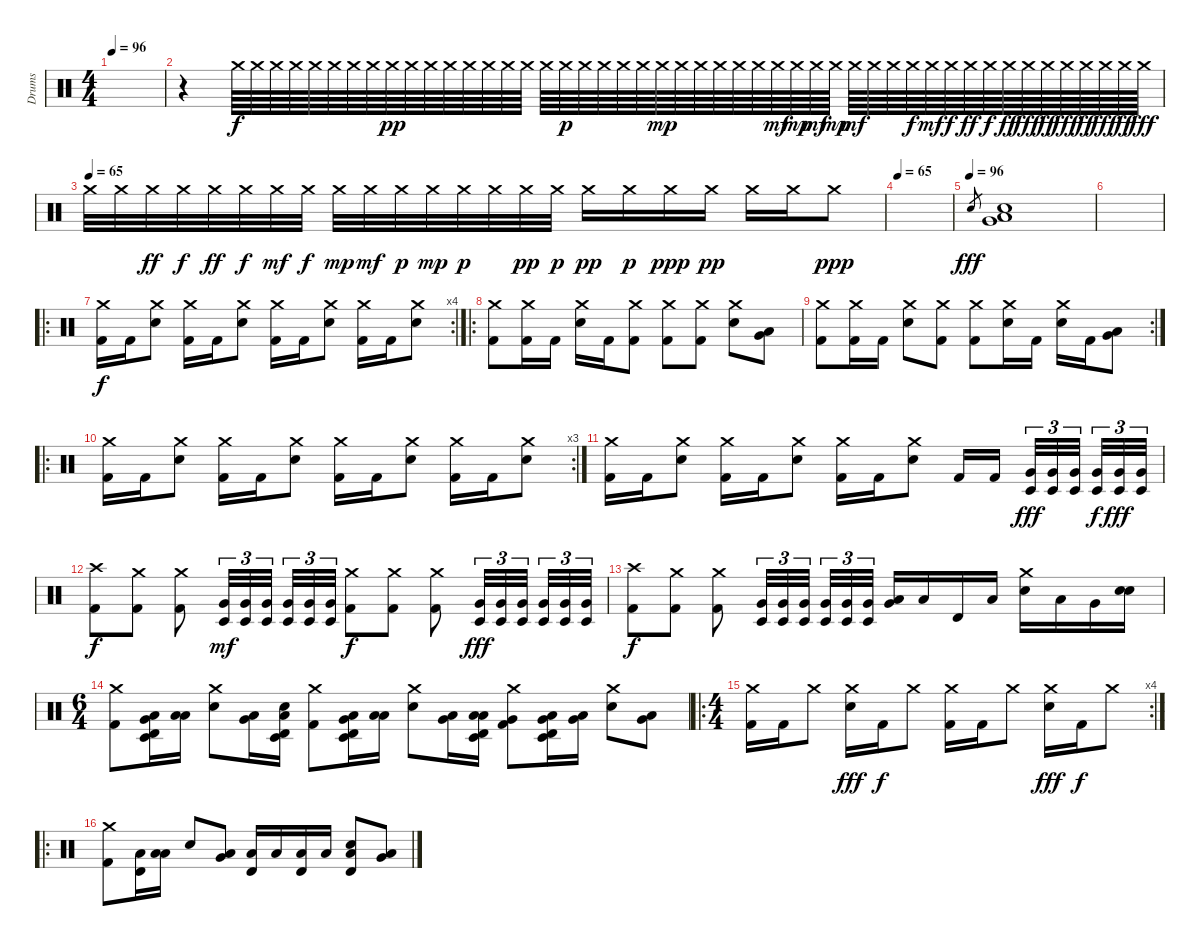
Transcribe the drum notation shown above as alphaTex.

\track ("Drums" "Drums") {instrument percussion}
\staff {score}
\articulation defaults
\ts (4 4)
\tempo 96
\tempo 55
\tempo 96
\clef neutral
\ks c
|
r.4 "Crash medium (hit)".64 "Crash medium (hit)".64 "Crash medium (hit)".64 "Crash medium (hit)".64 "Crash medium (hit)".64 "Crash medium (hit)".64 "Crash medium (hit)".64 "Crash medium (hit)".64 "Crash medium (hit)".64{dy pp} "Crash medium (hit)".64 "Crash medium (hit)".64 "Crash medium (hit)".64 "Crash medium (hit)".64 "Crash medium (hit)".64 "Crash medium (hit)".64 "Crash medium (hit)".64 "Crash medium (hit)".64 "Crash medium (hit)".64{dy p} "Crash medium (hit)".64 "Crash medium (hit)".64 "Crash medium (hit)".64 "Crash medium (hit)".64 "Crash medium (hit)".64{dy mp} "Crash medium (hit)".64 "Crash medium (hit)".64 "Crash medium (hit)".64 "Crash medium (hit)".64 "Crash medium (hit)".64 "Crash medium (hit)".64{dy mf} "Crash medium (hit)".64{dy mp} "Crash medium (hit)".64{dy mf} "Crash medium (hit)".64{dy mp} "Crash medium (hit)".64{dy mf} "Crash medium (hit)".64 "Crash medium (hit)".64 "Crash medium (hit)".64{dy f} "Crash medium (hit)".64{dy mf} "Crash medium (hit)".64{dy f} "Crash medium (hit)".64{dy ff} "Crash medium (hit)".64{dy f} "Crash medium (hit)".64{dy ff} "Crash medium (hit)".64{dy fff} "Crash medium (hit)".64{dy ff} "Crash medium (hit)".64{dy fff} "Crash medium (hit)".64{dy ff} "Crash medium (hit)".64{dy fff} "Crash medium (hit)".64{dy ff} "Crash medium (hit)".64{dy fff} |
\tempo (65)
"Crash medium (hit)".32 "Crash medium (hit)".32 "Crash medium (hit)".32{dy ff} "Crash medium (hit)".32{dy f} "Crash medium (hit)".32{dy ff} "Crash medium (hit)".32{dy f} "Crash medium (hit)".32{dy mf} "Crash medium (hit)".32{dy f} "Crash medium (hit)".32{dy mp} "Crash medium (hit)".32{dy mf} "Crash medium (hit)".32{dy p} "Crash medium (hit)".32{dy mp} "Crash medium (hit)".32{dy p} "Crash medium (hit)".32 "Crash medium (hit)".32{dy pp} "Crash medium (hit)".32{dy p} "Crash medium (hit)".16{dy pp} "Crash medium (hit)".16{dy p} "Crash medium (hit)".16{dy ppp} "Crash medium (hit)".16{dy pp} "Crash medium (hit)".16 "Crash medium (hit)".16 "Crash medium (hit)".8{dy ppp} |
\tempo 65
|
\tempo (96)
"Electric Snare (hit)".8{gr dy fff} ("Very Low Tom (hit)" "Electric Snare (hit)" "Low Floor Tom (hit)").1 |
|
\ro
\rc 4
("Crash medium (hit)" "Kick (hit) 2").16{dy f} "Kick (hit) 2".16 ("Crash medium (hit)" "Electric Snare (hit)").8 ("Crash medium (hit)" "Kick (hit) 2").16 "Kick (hit) 2".16 ("Crash medium (hit)" "Electric Snare (hit)").8 ("Crash medium (hit)" "Kick (hit) 2").16 "Kick (hit) 2".16 ("Crash medium (hit)" "Electric Snare (hit)").8 ("Crash medium (hit)" "Kick (hit) 2").16 "Kick (hit) 2".16 ("Crash medium (hit)" "Electric Snare (hit)").8 |
\ro
("Kick (hit) 2" "Crash medium (hit)").8 ("Crash medium (hit)" "Kick (hit) 2").16 "Kick (hit) 2".16 ("Crash medium (hit)" "Electric Snare (hit)").16 "Kick (hit) 2".16 ("Crash medium (hit)" "Kick (hit) 2").8 ("Crash medium (hit)" "Kick (hit) 2").8 ("Crash medium (hit)" "Kick (hit) 2").8 ("Crash medium (hit)" "Electric Snare (hit)").8 ("Very Low Tom (hit)" "Low Tom (hit)").8 |
\rc 2
("Kick (hit) 2" "Crash medium (hit)").8 ("Crash medium (hit)" "Kick (hit) 2").16 "Kick (hit) 2".16 ("Crash medium (hit)" "Electric Snare (hit)").8 ("Crash medium (hit)" "Kick (hit) 2").8 ("Crash medium (hit)" "Kick (hit) 2").8 ("Crash medium (hit)" "Electric Snare (hit)").16 "Kick (hit) 2".16 ("Crash medium (hit)" "Electric Snare (hit)").16 "Kick (hit) 2".16 ("Very Low Tom (hit)" "Low Tom (hit)").8 |
\ro
\rc 3
("Crash medium (hit)" "Kick (hit) 2").16 "Kick (hit) 2".16 ("Crash medium (hit)" "Electric Snare (hit)").8 ("Crash medium (hit)" "Kick (hit) 2").16 "Kick (hit) 2".16 ("Crash medium (hit)" "Electric Snare (hit)").8 ("Crash medium (hit)" "Kick (hit) 2").16 "Kick (hit) 2".16 ("Crash medium (hit)" "Electric Snare (hit)").8 ("Crash medium (hit)" "Kick (hit) 2").16 "Kick (hit) 2".16 ("Crash medium (hit)" "Electric Snare (hit)").8 |
("Crash medium (hit)" "Kick (hit) 2").16 "Kick (hit) 2".16 ("Crash medium (hit)" "Electric Snare (hit)").8 ("Crash medium (hit)" "Kick (hit) 2").16 "Kick (hit) 2".16 ("Crash medium (hit)" "Electric Snare (hit)").8 ("Crash medium (hit)" "Kick (hit) 2").16 "Kick (hit) 2".16 ("Crash medium (hit)" "Electric Snare (hit)").8 "Kick (hit) 2".16 "Kick (hit) 2".16 ("Very Low Tom (hit)" "Timbale low (hit)").32{tu (3 2) dy fff} ("Very Low Tom (hit)" "Timbale low (hit)").32{tu (3 2)} ("Very Low Tom (hit)" "Timbale low (hit)").32{tu (3 2)} ("Very Low Tom (hit)" "Timbale low (hit)").32{tu (3 2) dy f} ("Very Low Tom (hit)" "Timbale low (hit)").32{tu (3 2) dy fff} ("Very Low Tom (hit)" "Timbale low (hit)").32{tu (3 2)} |
("Crash high (hit)" "Kick (hit) 2").8{dy f} ("Crash medium (hit)" "Kick (hit) 2").8 ("Crash medium (hit)" "Kick (hit) 2").8 ("Very Low Tom (hit)" "Timbale low (hit)").32{tu (3 2) dy mf} ("Very Low Tom (hit)" "Timbale low (hit)").32{tu (3 2)} ("Very Low Tom (hit)" "Timbale low (hit)").32{tu (3 2)} ("Very Low Tom (hit)" "Timbale low (hit)").32{tu (3 2)} ("Very Low Tom (hit)" "Timbale low (hit)").32{tu (3 2)} ("Very Low Tom (hit)" "Timbale low (hit)").32{tu (3 2)} ("Crash medium (hit)" "Kick (hit) 2").8{dy f} ("Crash medium (hit)" "Kick (hit) 2").8 ("Crash medium (hit)" "Kick (hit) 2").8 ("Timbale low (hit)" "Very Low Tom (hit)").32{tu (3 2) dy fff} ("Timbale low (hit)" "Very Low Tom (hit)").32{tu (3 2)} ("Timbale low (hit)" "Very Low Tom (hit)").32{tu (3 2)} ("Timbale low (hit)" "Very Low Tom (hit)").32{tu (3 2)} ("Timbale low (hit)" "Very Low Tom (hit)").32{tu (3 2)} ("Timbale low (hit)" "Very Low Tom (hit)").32{tu (3 2)} |
("Crash high (hit)" "Kick (hit) 2").8{dy f} ("Crash medium (hit)" "Kick (hit) 2").8 ("Crash medium (hit)" "Kick (hit) 2").8 ("Very Low Tom (hit)" "Timbale low (hit)").32{tu (3 2)} ("Very Low Tom (hit)" "Timbale low (hit)").32{tu (3 2)} ("Very Low Tom (hit)" "Timbale low (hit)").32{tu (3 2)} ("Very Low Tom (hit)" "Timbale low (hit)").32{tu (3 2)} ("Very Low Tom (hit)" "Timbale low (hit)").32{tu (3 2)} ("Very Low Tom (hit)" "Timbale low (hit)").32{tu (3 2)} ("Very Low Tom (hit)" "Low Tom (hit)").16 "Low Tom (hit)".16 "Timbale high (hit)".16 "Low Tom (hit)".16 ("Electric Snare (hit)" "Crash medium (hit)").16 "Low Tom (hit)".16 "Very Low Tom (hit)".16 ("Electric Snare (hit)" "Electric Snare (hit)").16 |
\ts (6 4)
("Kick (hit) 2" "Crash medium (hit)").8 ("Timbale low (hit)" "Timbale high (hit)" "Low Tom (hit)" "Very Low Tom (hit)").16 ("Low Tom (hit)" "Low Tom (hit)").16 ("Electric Snare (hit)" "Crash medium (hit)").8 ("Low Tom (hit)" "Very Low Tom (hit)").16 ("Timbale low (hit)" "Timbale high (hit)" "Low Tom (hit)" "Electric Snare (hit)").16 ("Crash medium (hit)" "Kick (hit) 2").8 ("Timbale low (hit)" "Timbale high (hit)" "Low Tom (hit)" "Very Low Tom (hit)").16 ("Low Tom (hit)" "Low Tom (hit)").16 ("Electric Snare (hit)" "Crash medium (hit)").8 ("Low Tom (hit)" "Very Low Tom (hit)").16 ("Timbale high (hit)" "Timbale low (hit)" "Low Tom (hit)" "Low Tom (hit)").16 ("Crash medium (hit)" "Very Low Tom (hit)" "Kick (hit) 2").8 ("Timbale low (hit)" "Timbale high (hit)" "Low Tom (hit)" "Very Low Tom (hit)").16 ("Low Tom (hit)" "Very Low Tom (hit)").16 ("Electric Snare (hit)" "Crash medium (hit)").8 ("Very Low Tom (hit)" "Low Tom (hit)").8 |
\ro
\rc 4
\ts (4 4)
("Crash medium (hit)" "Kick (hit) 2").16 "Kick (hit) 2".16 "Crash medium (hit)".8 ("Crash medium (hit)" "Electric Snare (hit)").16{dy fff} "Kick (hit) 2".16{dy f} "Crash medium (hit)".8 ("Crash medium (hit)" "Kick (hit) 2").16 "Kick (hit) 2".16 "Crash medium (hit)".8 ("Crash medium (hit)" "Electric Snare (hit)").16{dy fff} "Kick (hit) 2".16{dy f} "Crash medium (hit)".8 |
\ro
("Kick (hit) 2" "Crash medium (hit)").8 ("Timbale high (hit)" "Low Tom (hit)").16 ("Low Tom (hit)" "Low Tom (hit)").16 "Electric Snare (hit)".8 ("Very Low Tom (hit)" "Low Tom (hit)").8 ("Timbale high (hit)" "Low Tom (hit)").16 "Low Tom (hit)".16 ("Timbale high (hit)" "Low Tom (hit)").16 "Low Tom (hit)".16 ("Electric Snare (hit)" "Low Tom (hit)" "Timbale high (hit)").8 ("Low Tom (hit)" "Very Low Tom (hit)").8
